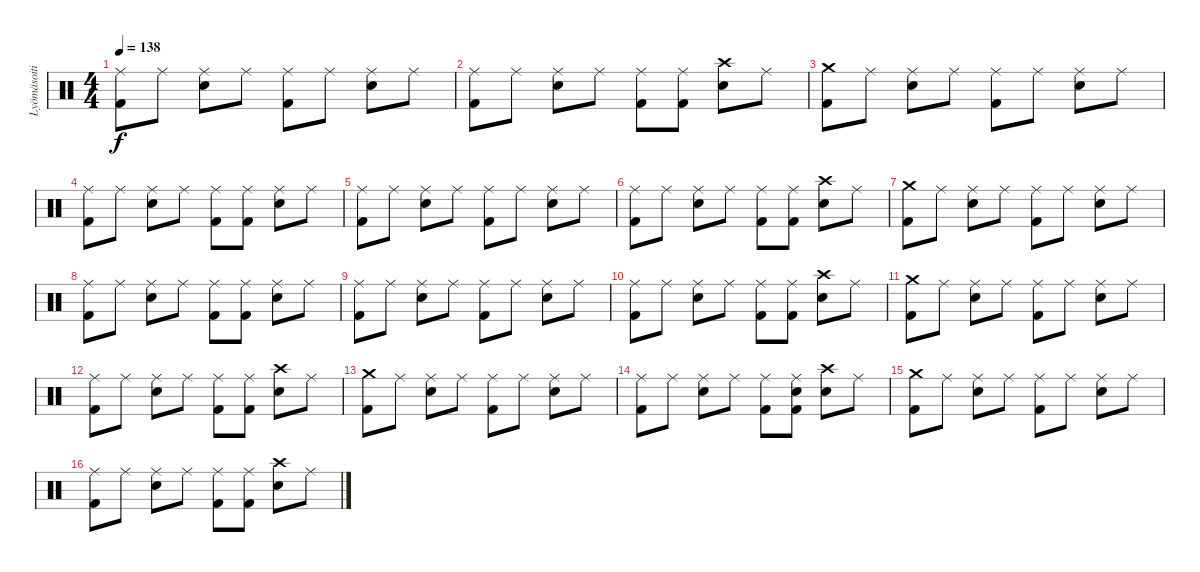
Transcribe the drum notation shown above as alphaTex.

\track ("Lyömäsoitin" "Lyömäsoiti") {instrument percussion}
\staff {score}
\articulation defaults
\ts (4 4)
\tempo 138
\clef neutral
\ks c
("Ride (middle)" "Kick (hit) 2").8{dy f} "Ride (middle)".8 ("Ride (middle)" "Electric Snare (hit)").8 "Ride (middle)".8 ("Ride (middle)" "Kick (hit) 2").8 "Ride (middle)".8 ("Ride (middle)" "Electric Snare (hit)").8 "Ride (middle)".8 |
("Ride (middle)" "Kick (hit) 2").8 "Ride (middle)".8 ("Ride (middle)" "Electric Snare (hit)").8 "Ride (middle)".8 ("Ride (middle)" "Kick (hit) 2").8 ("Ride (middle)" "Kick (hit) 2").8 ("Crash high (hit)" "Electric Snare (hit)").8 "Ride (middle)".8 |
("Crash medium (hit)" "Kick (hit) 2").8 "Ride (middle)".8 ("Ride (middle)" "Electric Snare (hit)").8 "Ride (middle)".8 ("Ride (middle)" "Kick (hit) 2").8 "Ride (middle)".8 ("Ride (middle)" "Electric Snare (hit)").8 "Ride (middle)".8 |
("Ride (middle)" "Kick (hit) 2").8 "Ride (middle)".8 ("Ride (middle)" "Electric Snare (hit)").8 "Ride (middle)".8 ("Ride (middle)" "Kick (hit) 2").8 ("Ride (middle)" "Kick (hit) 2").8 ("Ride (middle)" "Electric Snare (hit)").8 "Ride (middle)".8 |
("Ride (middle)" "Kick (hit) 2").8 "Ride (middle)".8 ("Ride (middle)" "Electric Snare (hit)").8 "Ride (middle)".8 ("Ride (middle)" "Kick (hit) 2").8 "Ride (middle)".8 ("Ride (middle)" "Electric Snare (hit)").8 "Ride (middle)".8 |
("Ride (middle)" "Kick (hit) 2").8 "Ride (middle)".8 ("Ride (middle)" "Electric Snare (hit)").8 "Ride (middle)".8 ("Ride (middle)" "Kick (hit) 2").8 ("Ride (middle)" "Kick (hit) 2").8 ("Crash high (hit)" "Electric Snare (hit)").8 "Ride (middle)".8 |
("Crash medium (hit)" "Kick (hit) 2").8 "Ride (middle)".8 ("Ride (middle)" "Electric Snare (hit)").8 "Ride (middle)".8 ("Ride (middle)" "Kick (hit) 2").8 "Ride (middle)".8 ("Ride (middle)" "Electric Snare (hit)").8 "Ride (middle)".8 |
("Ride (middle)" "Kick (hit) 2").8 "Ride (middle)".8 ("Ride (middle)" "Electric Snare (hit)").8 "Ride (middle)".8 ("Ride (middle)" "Kick (hit) 2").8 ("Ride (middle)" "Kick (hit) 2").8 ("Ride (middle)" "Electric Snare (hit)").8 "Ride (middle)".8 |
("Ride (middle)" "Kick (hit) 2").8 "Ride (middle)".8 ("Ride (middle)" "Electric Snare (hit)").8 "Ride (middle)".8 ("Ride (middle)" "Kick (hit) 2").8 "Ride (middle)".8 ("Ride (middle)" "Electric Snare (hit)").8 "Ride (middle)".8 |
("Ride (middle)" "Kick (hit) 2").8 "Ride (middle)".8 ("Ride (middle)" "Electric Snare (hit)").8 "Ride (middle)".8 ("Ride (middle)" "Kick (hit) 2").8 ("Ride (middle)" "Kick (hit) 2").8 ("Crash high (hit)" "Electric Snare (hit)").8 "Ride (middle)".8 |
("Crash medium (hit)" "Kick (hit) 2").8 "Ride (middle)".8 ("Ride (middle)" "Electric Snare (hit)").8 "Ride (middle)".8 ("Ride (middle)" "Kick (hit) 2").8 "Ride (middle)".8 ("Ride (middle)" "Electric Snare (hit)").8 "Ride (middle)".8 |
("Ride (middle)" "Kick (hit) 2").8 "Ride (middle)".8 ("Ride (middle)" "Electric Snare (hit)").8 "Ride (middle)".8 ("Ride (middle)" "Kick (hit) 2").8 ("Ride (middle)" "Kick (hit) 2").8 ("Crash high (hit)" "Electric Snare (hit)").8 "Ride (middle)".8 |
("Crash medium (hit)" "Kick (hit) 2").8 "Ride (middle)".8 ("Ride (middle)" "Electric Snare (hit)").8 "Ride (middle)".8 ("Ride (middle)" "Kick (hit) 2").8 "Ride (middle)".8 ("Ride (middle)" "Electric Snare (hit)").8 "Ride (middle)".8 |
("Ride (middle)" "Kick (hit) 2").8 "Ride (middle)".8 ("Ride (middle)" "Electric Snare (hit)").8 "Ride (middle)".8 ("Ride (middle)" "Kick (hit) 2").8 ("Ride (middle)" "Electric Snare (hit)" "Kick (hit) 2").8 ("Crash high (hit)" "Electric Snare (hit)").8 "Ride (middle)".8 |
("Crash medium (hit)" "Kick (hit) 2").8 "Ride (middle)".8 ("Ride (middle)" "Electric Snare (hit)").8 "Ride (middle)".8 ("Ride (middle)" "Kick (hit) 2").8 "Ride (middle)".8 ("Ride (middle)" "Electric Snare (hit)").8 "Ride (middle)".8 |
("Ride (middle)" "Kick (hit) 2").8 "Ride (middle)".8 ("Ride (middle)" "Electric Snare (hit)").8 "Ride (middle)".8 ("Ride (middle)" "Kick (hit) 2").8 ("Ride (middle)" "Kick (hit) 2").8 ("Crash high (hit)" "Electric Snare (hit)").8 "Ride (middle)".8
